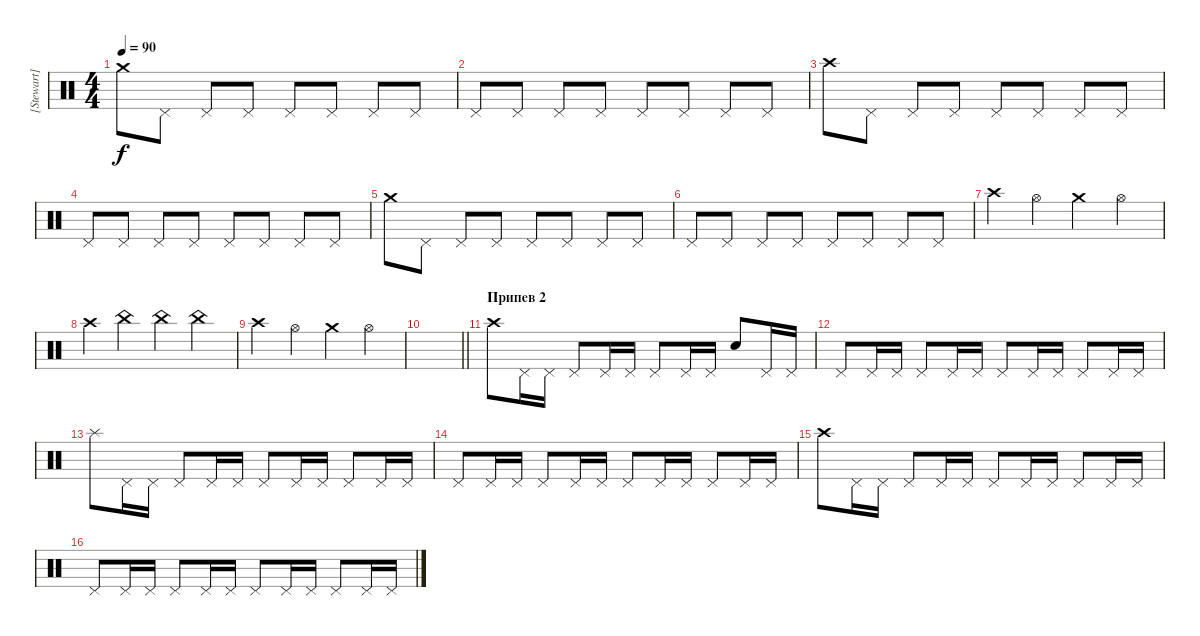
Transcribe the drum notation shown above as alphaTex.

\track ("[Stewart] (hats)" "[Stewart] ") {instrument percussion}
\staff {score}
\articulation defaults
\ts (4 4)
\tempo 90
\clef neutral
\ks c "Crash medium (hit)".8{dy f} "Pedal Hi-Hat (hit)".8 "Pedal Hi-Hat (hit)".8 "Pedal Hi-Hat (hit)".8 "Pedal Hi-Hat (hit)".8 "Pedal Hi-Hat (hit)".8 "Pedal Hi-Hat (hit)".8 "Pedal Hi-Hat (hit)".8
|
"Pedal Hi-Hat (hit)".8 "Pedal Hi-Hat (hit)".8 "Pedal Hi-Hat (hit)".8 "Pedal Hi-Hat (hit)".8 "Pedal Hi-Hat (hit)".8 "Pedal Hi-Hat (hit)".8 "Pedal Hi-Hat (hit)".8 "Pedal Hi-Hat (hit)".8 |
"Crash high (hit)".8 "Pedal Hi-Hat (hit)".8 "Pedal Hi-Hat (hit)".8 "Pedal Hi-Hat (hit)".8 "Pedal Hi-Hat (hit)".8 "Pedal Hi-Hat (hit)".8 "Pedal Hi-Hat (hit)".8 "Pedal Hi-Hat (hit)".8 |
"Pedal Hi-Hat (hit)".8 "Pedal Hi-Hat (hit)".8 "Pedal Hi-Hat (hit)".8 "Pedal Hi-Hat (hit)".8 "Pedal Hi-Hat (hit)".8 "Pedal Hi-Hat (hit)".8 "Pedal Hi-Hat (hit)".8 "Pedal Hi-Hat (hit)".8 |
"Crash medium (hit)".8 "Pedal Hi-Hat (hit)".8 "Pedal Hi-Hat (hit)".8 "Pedal Hi-Hat (hit)".8 "Pedal Hi-Hat (hit)".8 "Pedal Hi-Hat (hit)".8 "Pedal Hi-Hat (hit)".8 "Pedal Hi-Hat (hit)".8 |
"Pedal Hi-Hat (hit)".8 "Pedal Hi-Hat (hit)".8 "Pedal Hi-Hat (hit)".8 "Pedal Hi-Hat (hit)".8 "Pedal Hi-Hat (hit)".8 "Pedal Hi-Hat (hit)".8 "Pedal Hi-Hat (hit)".8 "Pedal Hi-Hat (hit)".8 |
"Crash high (hit)".4 "Hi-Hat (open)".4 "Crash medium (hit)".4 "Hi-Hat (open)".4 |
"Crash high (hit)".4 "China (hit)".4 "China (hit)".4 "China (hit)".4 |
"Crash high (hit)".4 "Hi-Hat (open)".4 "Crash medium (hit)".4 "Hi-Hat (open)".4 |
\barLineRight lightlight
|
\section ("" "Припев 2")
"Crash high (hit)".8 "Pedal Hi-Hat (hit)".16 "Pedal Hi-Hat (hit)".16 "Pedal Hi-Hat (hit)".8 "Pedal Hi-Hat (hit)".16 "Pedal Hi-Hat (hit)".16 "Pedal Hi-Hat (hit)".8 "Pedal Hi-Hat (hit)".16 "Pedal Hi-Hat (hit)".16 "Snare (hit)".8 "Pedal Hi-Hat (hit)".16 "Pedal Hi-Hat (hit)".16 |
"Pedal Hi-Hat (hit)".8 "Pedal Hi-Hat (hit)".16 "Pedal Hi-Hat (hit)".16 "Pedal Hi-Hat (hit)".8 "Pedal Hi-Hat (hit)".16 "Pedal Hi-Hat (hit)".16 "Pedal Hi-Hat (hit)".8 "Pedal Hi-Hat (hit)".16 "Pedal Hi-Hat (hit)".16 "Pedal Hi-Hat (hit)".8 "Pedal Hi-Hat (hit)".16 "Pedal Hi-Hat (hit)".16 |
"Splash (hit)".8 "Pedal Hi-Hat (hit)".16 "Pedal Hi-Hat (hit)".16 "Pedal Hi-Hat (hit)".8 "Pedal Hi-Hat (hit)".16 "Pedal Hi-Hat (hit)".16 "Pedal Hi-Hat (hit)".8 "Pedal Hi-Hat (hit)".16 "Pedal Hi-Hat (hit)".16 "Pedal Hi-Hat (hit)".8 "Pedal Hi-Hat (hit)".16 "Pedal Hi-Hat (hit)".16 |
"Pedal Hi-Hat (hit)".8 "Pedal Hi-Hat (hit)".16 "Pedal Hi-Hat (hit)".16 "Pedal Hi-Hat (hit)".8 "Pedal Hi-Hat (hit)".16 "Pedal Hi-Hat (hit)".16 "Pedal Hi-Hat (hit)".8 "Pedal Hi-Hat (hit)".16 "Pedal Hi-Hat (hit)".16 "Pedal Hi-Hat (hit)".8 "Pedal Hi-Hat (hit)".16 "Pedal Hi-Hat (hit)".16 |
"Crash high (hit)".8 "Pedal Hi-Hat (hit)".16 "Pedal Hi-Hat (hit)".16 "Pedal Hi-Hat (hit)".8 "Pedal Hi-Hat (hit)".16 "Pedal Hi-Hat (hit)".16 "Pedal Hi-Hat (hit)".8 "Pedal Hi-Hat (hit)".16 "Pedal Hi-Hat (hit)".16 "Pedal Hi-Hat (hit)".8 "Pedal Hi-Hat (hit)".16 "Pedal Hi-Hat (hit)".16 |
"Pedal Hi-Hat (hit)".8 "Pedal Hi-Hat (hit)".16 "Pedal Hi-Hat (hit)".16 "Pedal Hi-Hat (hit)".8 "Pedal Hi-Hat (hit)".16 "Pedal Hi-Hat (hit)".16 "Pedal Hi-Hat (hit)".8 "Pedal Hi-Hat (hit)".16 "Pedal Hi-Hat (hit)".16 "Pedal Hi-Hat (hit)".8 "Pedal Hi-Hat (hit)".16 "Pedal Hi-Hat (hit)".16
